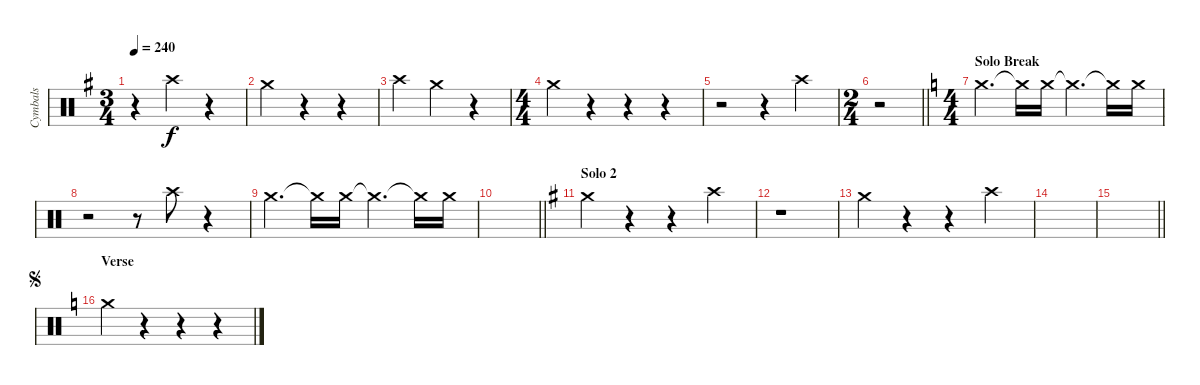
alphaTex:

\track ("Cymbals" "Cymbals") {instrument percussion}
\staff {score}
\articulation defaults
\ts (3 4)
\tempo 240
\clef neutral
\ks g
r.4{dy fff} "Crash high (hit)".4{dy f} r.4 |
"Crash medium (hit)".4 r.4 r.4 |
"Crash high (hit)".4 "Crash medium (hit)".4 r.4 |
\ts (4 4)
"Crash medium (hit)".4 r.4 r.4 r.4 |
r.2 r.4 "Crash high (hit)".4 |
\ts (2 4)
\barLineRight lightlight
r.2 |
\ts (4 4)
\section ("" "Solo Break")
\ks c "Crash medium (hit)".4{d} "Crash medium (hit)"{t}.16 "Crash medium (hit)".16 "Crash medium (hit)"{t}.4{d} "Crash medium (hit)"{t}.16 "Crash medium (hit)".16
|
r.2 r.8 "Crash high (hit)".8 r.4 |
"Crash medium (hit)".4{d} "Crash medium (hit)"{t}.16 "Crash medium (hit)".16 "Crash medium (hit)"{t}.4{d} "Crash medium (hit)"{t}.16 "Crash medium (hit)".16 |
\barLineRight lightlight
|
\section ("" "Solo 2")
\ks g "Crash medium (hit)".4
r.4 r.4 "Crash high (hit)".4 |
r.1 |
"Crash medium (hit)".4 r.4 r.4 "Crash high (hit)".4 |
|
\barLineRight lightlight
|
\section ("" "Verse ")
\jump segno
\ks c "Crash medium (hit)".4
r.4 r.4 r.4
